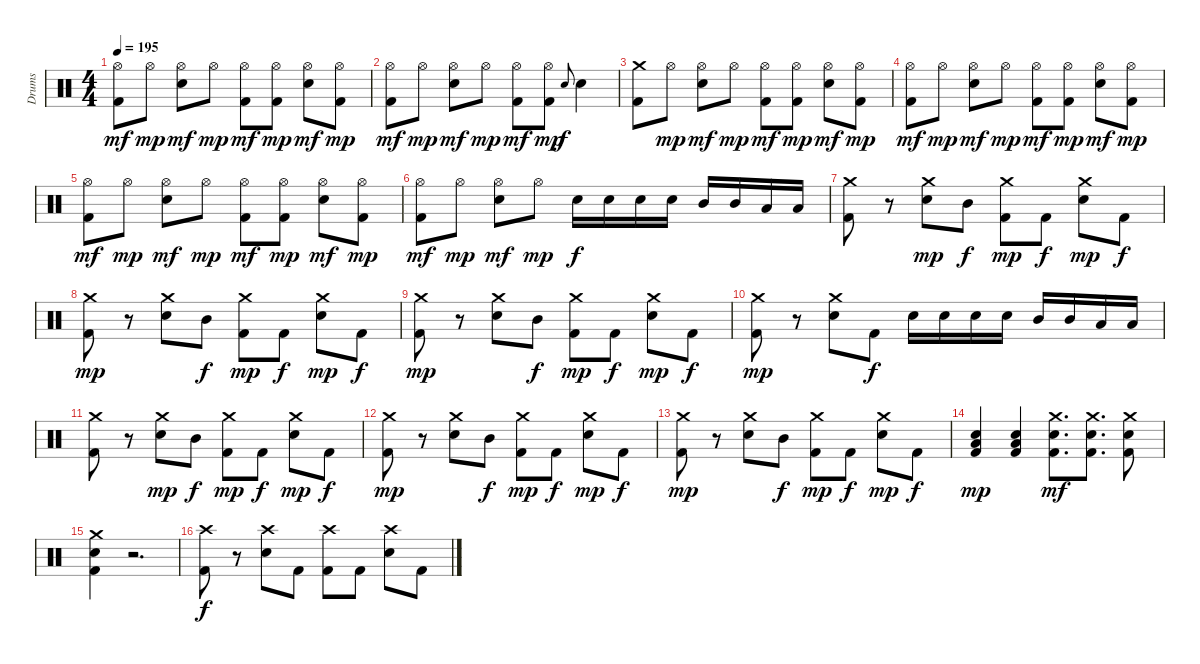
\track ("Drums" "Drums") {instrument percussion}
\staff {score}
\articulation defaults
\ts (4 4)
\tempo 195
\clef neutral
\ks c
("Hi-Hat (open)" "Kick (hit) 2").8{dy mf} "Hi-Hat (open)".8{dy mp} ("Hi-Hat (open)" "Electric Snare (hit)").8{dy mf} "Hi-Hat (open)".8{dy mp} ("Hi-Hat (open)" "Kick (hit) 2").8{dy mf} ("Hi-Hat (open)" "Kick (hit) 2").8{dy mp} ("Hi-Hat (open)" "Electric Snare (hit)").8{dy mf} ("Hi-Hat (open)" "Kick (hit) 2").8{dy mp} |
("Hi-Hat (open)" "Kick (hit) 2").8{dy mf} "Hi-Hat (open)".8{dy mp} ("Hi-Hat (open)" "Electric Snare (hit)").8{dy mf} "Hi-Hat (open)".8{dy mp} ("Hi-Hat (open)" "Kick (hit) 2").8{dy mf} ("Hi-Hat (open)" "Kick (hit) 2").8{dy mp} "Electric Snare (hit)".8{gr onbeat dy f} "Electric Snare (hit)".4 |
("Crash medium (hit)" "Kick (hit) 2").8 "Hi-Hat (open)".8{dy mp} ("Hi-Hat (open)" "Electric Snare (hit)").8{dy mf} "Hi-Hat (open)".8{dy mp} ("Hi-Hat (open)" "Kick (hit) 2").8{dy mf} ("Hi-Hat (open)" "Kick (hit) 2").8{dy mp} ("Hi-Hat (open)" "Electric Snare (hit)").8{dy mf} ("Hi-Hat (open)" "Kick (hit) 2").8{dy mp} |
("Hi-Hat (open)" "Kick (hit) 2").8{dy mf} "Hi-Hat (open)".8{dy mp} ("Hi-Hat (open)" "Electric Snare (hit)").8{dy mf} "Hi-Hat (open)".8{dy mp} ("Hi-Hat (open)" "Kick (hit) 2").8{dy mf} ("Hi-Hat (open)" "Kick (hit) 2").8{dy mp} ("Hi-Hat (open)" "Electric Snare (hit)").8{dy mf} ("Hi-Hat (open)" "Kick (hit) 2").8{dy mp} |
("Hi-Hat (open)" "Kick (hit) 2").8{dy mf} "Hi-Hat (open)".8{dy mp} ("Hi-Hat (open)" "Electric Snare (hit)").8{dy mf} "Hi-Hat (open)".8{dy mp} ("Hi-Hat (open)" "Kick (hit) 2").8{dy mf} ("Hi-Hat (open)" "Kick (hit) 2").8{dy mp} ("Hi-Hat (open)" "Electric Snare (hit)").8{dy mf} ("Hi-Hat (open)" "Kick (hit) 2").8{dy mp} |
("Hi-Hat (open)" "Kick (hit) 2").8{dy mf} "Hi-Hat (open)".8{dy mp} ("Hi-Hat (open)" "Electric Snare (hit)").8{dy mf} "Hi-Hat (open)".8{dy mp} "Electric Snare (hit)".16{dy f} "Electric Snare (hit)".16 "Electric Snare (hit)".16 "Electric Snare (hit)".16 "Mid Tom (hit)".16 "Mid Tom (hit)".16 "Low Tom (hit)".16 "Low Tom (hit)".16 |
("Crash medium (hit)" "Kick (hit) 2").8 r.8 ("Crash medium (hit)" "Electric Snare (hit)").8{dy mp} "Mid Tom (hit)".8{dy f} ("Crash medium (hit)" "Kick (hit) 2").8{dy mp} "Kick (hit) 2".8{dy f} ("Crash medium (hit)" "Electric Snare (hit)").8{dy mp} "Kick (hit) 2".8{dy f} |
("Crash medium (hit)" "Kick (hit) 2").8{dy mp} r.8 ("Crash medium (hit)" "Electric Snare (hit)").8 "Mid Tom (hit)".8{dy f} ("Crash medium (hit)" "Kick (hit) 2").8{dy mp} "Kick (hit) 2".8{dy f} ("Crash medium (hit)" "Electric Snare (hit)").8{dy mp} "Kick (hit) 2".8{dy f} |
("Crash medium (hit)" "Kick (hit) 2").8{dy mp} r.8 ("Crash medium (hit)" "Electric Snare (hit)").8 "Mid Tom (hit)".8{dy f} ("Crash medium (hit)" "Kick (hit) 2").8{dy mp} "Kick (hit) 2".8{dy f} ("Crash medium (hit)" "Electric Snare (hit)").8{dy mp} "Kick (hit) 2".8{dy f} |
("Crash medium (hit)" "Kick (hit) 2").8{dy mp} r.8 ("Crash medium (hit)" "Electric Snare (hit)").8 "Kick (hit) 2".8{dy f} "Electric Snare (hit)".16 "Electric Snare (hit)".16 "Electric Snare (hit)".16 "Electric Snare (hit)".16 "Mid Tom (hit)".16 "Mid Tom (hit)".16 "Low Tom (hit)".16 "Low Tom (hit)".16 |
("Crash medium (hit)" "Kick (hit) 2").8 r.8 ("Crash medium (hit)" "Electric Snare (hit)").8{dy mp} "Mid Tom (hit)".8{dy f} ("Crash medium (hit)" "Kick (hit) 2").8{dy mp} "Kick (hit) 2".8{dy f} ("Crash medium (hit)" "Electric Snare (hit)").8{dy mp} "Kick (hit) 2".8{dy f} |
("Crash medium (hit)" "Kick (hit) 2").8{dy mp} r.8 ("Crash medium (hit)" "Electric Snare (hit)").8 "Mid Tom (hit)".8{dy f} ("Crash medium (hit)" "Kick (hit) 2").8{dy mp} "Kick (hit) 2".8{dy f} ("Crash medium (hit)" "Electric Snare (hit)").8{dy mp} "Kick (hit) 2".8{dy f} |
("Crash medium (hit)" "Kick (hit) 2").8{dy mp} r.8 ("Crash medium (hit)" "Electric Snare (hit)").8 "Mid Tom (hit)".8{dy f} ("Crash medium (hit)" "Kick (hit) 2").8{dy mp} "Kick (hit) 2".8{dy f} ("Crash medium (hit)" "Electric Snare (hit)").8{dy mp} "Kick (hit) 2".8{dy f} |
("Low Tom (hit)" "Electric Snare (hit)" "Kick (hit) 2").4{dy mp} ("Low Tom (hit)" "Electric Snare (hit)" "Kick (hit) 2").4 ("Crash medium (hit)" "Electric Snare (hit)" "Kick (hit) 2").8{d dy mf} ("Crash medium (hit)" "Electric Snare (hit)" "Kick (hit) 2").8{d} ("Crash medium (hit)" "Electric Snare (hit)" "Kick (hit) 2").8 |
("Crash medium (hit)" "Electric Snare (hit)" "Kick (hit) 2").4 r.2{d} |
("Crash high (hit)" "Kick (hit) 2").8{dy f} r.8 ("Crash high (hit)" "Electric Snare (hit)").8 "Kick (hit) 2".8 ("Crash high (hit)" "Kick (hit) 2").8 "Kick (hit) 2".8 ("Crash high (hit)" "Electric Snare (hit)").8 "Kick (hit) 2".8
